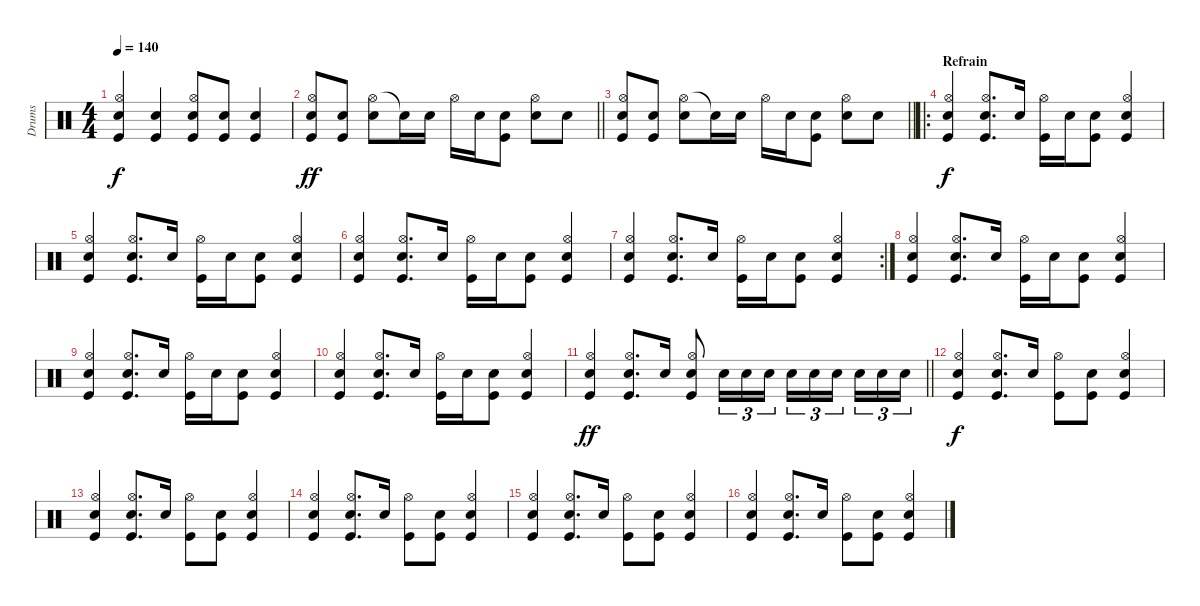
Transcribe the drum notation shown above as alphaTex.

\track ("Drums" "Drums") {instrument percussion}
\staff {score}
\articulation defaults
\ts (4 4)
\tempo 140
\clef neutral
\ks c
("Kick (hit)" "Hi-Hat (open)" "Snare (hit) 2").4{dy f} ("Kick (hit)" "Snare (hit) 2").4 ("Kick (hit)" "Hi-Hat (open)" "Snare (hit) 2").8 ("Kick (hit)" "Snare (hit) 2").8 ("Kick (hit)" "Snare (hit) 2").4 |
\barLineRight lightlight
("Hi-Hat (open)" "Kick (hit)" "Snare (hit) 2").8{dy ff} ("Kick (hit)" "Snare (hit) 2").8 ("Hi-Hat (open)" "Snare (hit) 2").8 "Snare (hit) 2"{t}.16 "Snare (hit) 2".16 "Hi-Hat (open)".16 "Snare (hit) 2".16 ("Kick (hit)" "Snare (hit) 2").8 ("Hi-Hat (open)" "Snare (hit) 2").8 "Snare (hit) 2".8 |
\barLineRight lightlight
("Hi-Hat (open)" "Kick (hit)" "Snare (hit) 2").8 ("Kick (hit)" "Snare (hit) 2").8 ("Hi-Hat (open)" "Snare (hit) 2").8 "Snare (hit) 2"{t}.16 "Snare (hit) 2".16 "Hi-Hat (open)".16 "Snare (hit) 2".16 ("Kick (hit)" "Snare (hit) 2").8 ("Hi-Hat (open)" "Snare (hit) 2").8 "Snare (hit) 2".8 |
\ro
\section ("" "Refrain")
("Hi-Hat (open)" "Kick (hit)" "Snare (hit) 2").4{dy f} ("Hi-Hat (open)" "Kick (hit)" "Snare (hit) 2").8{d} "Snare (hit) 2".16 ("Hi-Hat (open)" "Kick (hit)").16 "Snare (hit) 2".16 ("Kick (hit)" "Snare (hit) 2").8 ("Hi-Hat (open)" "Kick (hit)" "Snare (hit) 2").4 |
("Hi-Hat (open)" "Kick (hit)" "Snare (hit) 2").4 ("Hi-Hat (open)" "Kick (hit)" "Snare (hit) 2").8{d} "Snare (hit) 2".16 ("Hi-Hat (open)" "Kick (hit)").16 "Snare (hit) 2".16 ("Kick (hit)" "Snare (hit) 2").8 ("Hi-Hat (open)" "Kick (hit)" "Snare (hit) 2").4 |
("Hi-Hat (open)" "Kick (hit)" "Snare (hit) 2").4 ("Hi-Hat (open)" "Kick (hit)" "Snare (hit) 2").8{d} "Snare (hit) 2".16 ("Hi-Hat (open)" "Kick (hit)").16 "Snare (hit) 2".16 ("Kick (hit)" "Snare (hit) 2").8 ("Hi-Hat (open)" "Kick (hit)" "Snare (hit) 2").4 |
\rc 2
("Hi-Hat (open)" "Kick (hit)" "Snare (hit) 2").4 ("Hi-Hat (open)" "Kick (hit)" "Snare (hit) 2").8{d} "Snare (hit) 2".16 ("Hi-Hat (open)" "Kick (hit)").16 "Snare (hit) 2".16 ("Kick (hit)" "Snare (hit) 2").8 ("Hi-Hat (open)" "Kick (hit)" "Snare (hit) 2").4 |
("Hi-Hat (open)" "Kick (hit)" "Snare (hit) 2").4 ("Hi-Hat (open)" "Kick (hit)" "Snare (hit) 2").8{d} "Snare (hit) 2".16 ("Hi-Hat (open)" "Kick (hit)").16 "Snare (hit) 2".16 ("Kick (hit)" "Snare (hit) 2").8 ("Hi-Hat (open)" "Kick (hit)" "Snare (hit) 2").4 |
("Hi-Hat (open)" "Kick (hit)" "Snare (hit) 2").4 ("Hi-Hat (open)" "Kick (hit)" "Snare (hit) 2").8{d} "Snare (hit) 2".16 ("Hi-Hat (open)" "Kick (hit)").16 "Snare (hit) 2".16 ("Kick (hit)" "Snare (hit) 2").8 ("Hi-Hat (open)" "Kick (hit)" "Snare (hit) 2").4 |
("Hi-Hat (open)" "Kick (hit)" "Snare (hit) 2").4 ("Hi-Hat (open)" "Kick (hit)" "Snare (hit) 2").8{d} "Snare (hit) 2".16 ("Hi-Hat (open)" "Kick (hit)").16 "Snare (hit) 2".16 ("Kick (hit)" "Snare (hit) 2").8 ("Hi-Hat (open)" "Kick (hit)" "Snare (hit) 2").4 |
\barLineRight lightlight
("Hi-Hat (open)" "Kick (hit)" "Snare (hit) 2").4{dy ff} ("Hi-Hat (open)" "Kick (hit)" "Snare (hit) 2").8{d} "Snare (hit) 2".16 ("Hi-Hat (open)" "Kick (hit)" "Snare (hit) 2").8 "Snare (hit) 2".16{tu (3 2)} "Snare (hit) 2".16{tu (3 2)} "Snare (hit) 2".16{tu (3 2)} "Snare (hit) 2".16{tu (3 2)} "Snare (hit) 2".16{tu (3 2)} "Snare (hit) 2".16{tu (3 2) beam splitsecondary} "Snare (hit) 2".16{tu (3 2)} "Snare (hit) 2".16{tu (3 2)} "Snare (hit) 2".16{tu (3 2)} |
("Hi-Hat (open)" "Kick (hit)" "Snare (hit) 2").4{dy f} ("Hi-Hat (open)" "Kick (hit)" "Snare (hit) 2").8{d} "Snare (hit) 2".16 ("Hi-Hat (open)" "Kick (hit)").8 ("Kick (hit)" "Snare (hit) 2").8 ("Hi-Hat (open)" "Kick (hit)" "Snare (hit) 2").4 |
("Hi-Hat (open)" "Kick (hit)" "Snare (hit) 2").4 ("Hi-Hat (open)" "Kick (hit)" "Snare (hit) 2").8{d} "Snare (hit) 2".16 ("Hi-Hat (open)" "Kick (hit)").8 ("Kick (hit)" "Snare (hit) 2").8 ("Hi-Hat (open)" "Kick (hit)" "Snare (hit) 2").4 |
("Hi-Hat (open)" "Kick (hit)" "Snare (hit) 2").4 ("Hi-Hat (open)" "Kick (hit)" "Snare (hit) 2").8{d} "Snare (hit) 2".16 ("Hi-Hat (open)" "Kick (hit)").8 ("Kick (hit)" "Snare (hit) 2").8 ("Hi-Hat (open)" "Kick (hit)" "Snare (hit) 2").4 |
("Hi-Hat (open)" "Kick (hit)" "Snare (hit) 2").4 ("Hi-Hat (open)" "Kick (hit)" "Snare (hit) 2").8{d} "Snare (hit) 2".16 ("Hi-Hat (open)" "Kick (hit)").8 ("Kick (hit)" "Snare (hit) 2").8 ("Hi-Hat (open)" "Kick (hit)" "Snare (hit) 2").4 |
("Hi-Hat (open)" "Kick (hit)" "Snare (hit) 2").4 ("Hi-Hat (open)" "Kick (hit)" "Snare (hit) 2").8{d} "Snare (hit) 2".16 ("Hi-Hat (open)" "Kick (hit)").8 ("Kick (hit)" "Snare (hit) 2").8 ("Hi-Hat (open)" "Kick (hit)" "Snare (hit) 2").4
